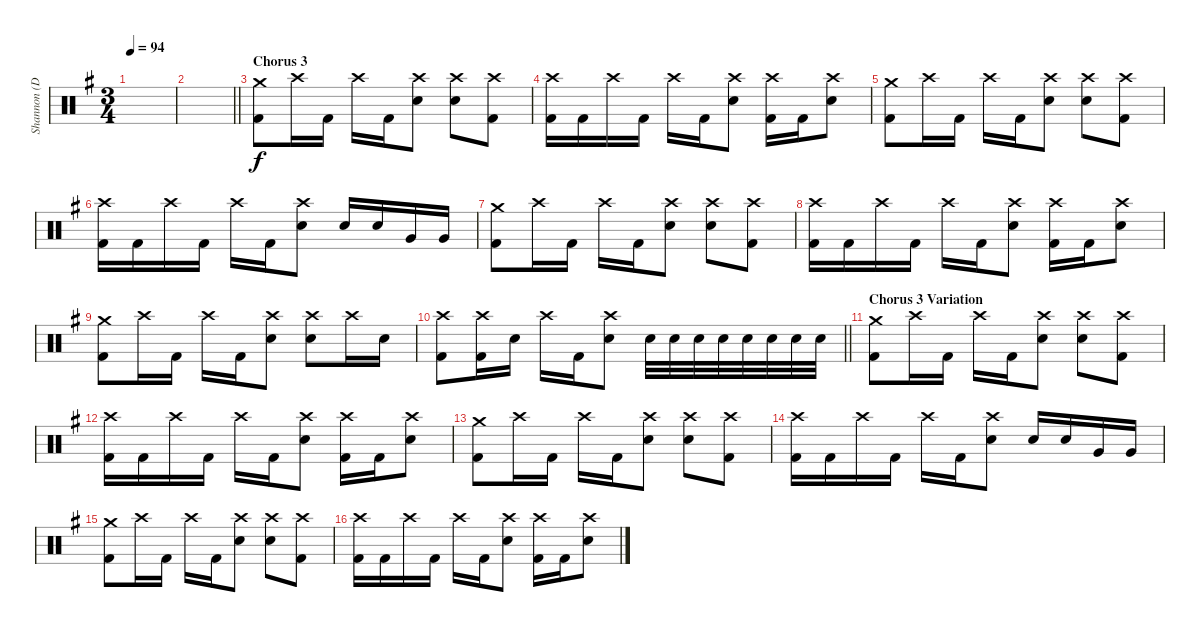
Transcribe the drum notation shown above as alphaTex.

\track ("Shannon (Drums)" "Shannon (D") {instrument percussion}
\staff {score}
\articulation defaults
\ts (3 4)
\tempo 94
\clef neutral
\ks g
|
\barLineRight lightlight
|
\section ("" "Chorus 3")
("Crash medium (hit)" "Kick (hit) 2").8 "Crash high (hit)".16 "Kick (hit) 2".16 "Crash high (hit)".16 "Kick (hit) 2".16 ("Crash high (hit)" "Electric Snare (hit)").8 ("Crash high (hit)" "Electric Snare (hit)").8 ("Crash high (hit)" "Kick (hit) 2").8 |
("Crash high (hit)" "Kick (hit) 2").16 "Kick (hit) 2".16 "Crash high (hit)".16 "Kick (hit) 2".16 "Crash high (hit)".16 "Kick (hit) 2".16 ("Crash high (hit)" "Electric Snare (hit)").8 ("Crash high (hit)" "Kick (hit) 2").16 "Kick (hit) 2".16 ("Crash high (hit)" "Electric Snare (hit)").8 |
("Crash medium (hit)" "Kick (hit) 2").8 "Crash high (hit)".16 "Kick (hit) 2".16 "Crash high (hit)".16 "Kick (hit) 2".16 ("Crash high (hit)" "Electric Snare (hit)").8 ("Crash high (hit)" "Electric Snare (hit)").8 ("Crash high (hit)" "Kick (hit) 2").8 |
("Crash high (hit)" "Kick (hit) 2").16 "Kick (hit) 2".16 "Crash high (hit)".16 "Kick (hit) 2".16 "Crash high (hit)".16 "Kick (hit) 2".16 ("Crash high (hit)" "Electric Snare (hit)").8 "Electric Snare (hit)".16 "Electric Snare (hit)".16 "Very Low Tom (hit)".16 "Very Low Tom (hit)".16 |
("Crash medium (hit)" "Kick (hit) 2").8 "Crash high (hit)".16 "Kick (hit) 2".16 "Crash high (hit)".16 "Kick (hit) 2".16 ("Crash high (hit)" "Electric Snare (hit)").8 ("Crash high (hit)" "Electric Snare (hit)").8 ("Crash high (hit)" "Kick (hit) 2").8 |
("Crash high (hit)" "Kick (hit) 2").16 "Kick (hit) 2".16 "Crash high (hit)".16 "Kick (hit) 2".16 "Crash high (hit)".16 "Kick (hit) 2".16 ("Crash high (hit)" "Electric Snare (hit)").8 ("Crash high (hit)" "Kick (hit) 2").16 "Kick (hit) 2".16 ("Crash high (hit)" "Electric Snare (hit)").8 |
("Crash medium (hit)" "Kick (hit) 2").8 "Crash high (hit)".16 "Kick (hit) 2".16 "Crash high (hit)".16 "Kick (hit) 2".16 ("Crash high (hit)" "Electric Snare (hit)").8 ("Crash high (hit)" "Electric Snare (hit)").8 "Crash high (hit)".16 "Electric Snare (hit)".16 |
\barLineRight lightlight
("Crash high (hit)" "Kick (hit) 2").8 ("Crash high (hit)" "Kick (hit) 2").16 "Electric Snare (hit)".16 "Crash high (hit)".16 "Kick (hit) 2".16 ("Crash high (hit)" "Electric Snare (hit)").8 "Electric Snare (hit)".32 "Electric Snare (hit)".32 "Electric Snare (hit)".32 "Electric Snare (hit)".32 "Electric Snare (hit)".32 "Electric Snare (hit)".32 "Electric Snare (hit)".32 "Electric Snare (hit)".32 |
\section ("" "Chorus 3 Variation")
("Crash medium (hit)" "Kick (hit) 2").8 "Crash high (hit)".16 "Kick (hit) 2".16 "Crash high (hit)".16 "Kick (hit) 2".16 ("Crash high (hit)" "Electric Snare (hit)").8 ("Crash high (hit)" "Electric Snare (hit)").8 ("Crash high (hit)" "Kick (hit) 2").8 |
("Crash high (hit)" "Kick (hit) 2").16 "Kick (hit) 2".16 "Crash high (hit)".16 "Kick (hit) 2".16 "Crash high (hit)".16 "Kick (hit) 2".16 ("Crash high (hit)" "Electric Snare (hit)").8 ("Crash high (hit)" "Kick (hit) 2").16 "Kick (hit) 2".16 ("Crash high (hit)" "Electric Snare (hit)").8 |
("Crash medium (hit)" "Kick (hit) 2").8 "Crash high (hit)".16 "Kick (hit) 2".16 "Crash high (hit)".16 "Kick (hit) 2".16 ("Crash high (hit)" "Electric Snare (hit)").8 ("Crash high (hit)" "Electric Snare (hit)").8 ("Crash high (hit)" "Kick (hit) 2").8 |
("Crash high (hit)" "Kick (hit) 2").16 "Kick (hit) 2".16 "Crash high (hit)".16 "Kick (hit) 2".16 "Crash high (hit)".16 "Kick (hit) 2".16 ("Crash high (hit)" "Electric Snare (hit)").8 "Electric Snare (hit)".16 "Electric Snare (hit)".16 "Very Low Tom (hit)".16 "Very Low Tom (hit)".16 |
("Crash medium (hit)" "Kick (hit) 2").8 "Crash high (hit)".16 "Kick (hit) 2".16 "Crash high (hit)".16 "Kick (hit) 2".16 ("Crash high (hit)" "Electric Snare (hit)").8 ("Crash high (hit)" "Electric Snare (hit)").8 ("Crash high (hit)" "Kick (hit) 2").8 |
("Crash high (hit)" "Kick (hit) 2").16 "Kick (hit) 2".16 "Crash high (hit)".16 "Kick (hit) 2".16 "Crash high (hit)".16 "Kick (hit) 2".16 ("Crash high (hit)" "Electric Snare (hit)").8 ("Crash high (hit)" "Kick (hit) 2").16 "Kick (hit) 2".16 ("Crash high (hit)" "Electric Snare (hit)").8
